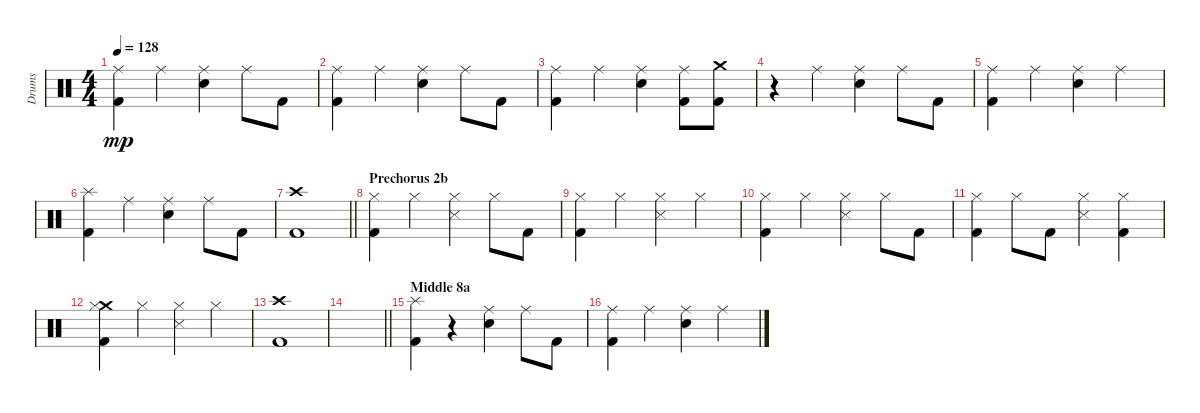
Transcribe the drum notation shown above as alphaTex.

\track ("Drums" "Drums") {instrument percussion}
\staff {score}
\articulation defaults
\ts (4 4)
\tempo 128
\clef neutral
\ks c
("Ride (middle)" "Kick (hit) 2").4{dy mp} "Ride (middle)".4 ("Ride (middle)" "Snare (hit) 2").4 "Ride (middle)".8 "Kick (hit) 2".8 |
("Ride (middle)" "Kick (hit) 2").4 "Ride (middle)".4 ("Ride (middle)" "Snare (hit) 2").4 "Ride (middle)".8 "Kick (hit) 2".8 |
("Ride (middle)" "Kick (hit) 2").4 "Ride (middle)".4 ("Ride (middle)" "Snare (hit) 2").4 ("Ride (middle)" "Kick (hit) 2").8 ("Crash medium (hit)" "Kick (hit) 2").8 |
r.4 "Ride (middle)".4 ("Ride (middle)" "Snare (hit) 2").4 "Ride (middle)".8 "Kick (hit) 2".8 |
("Ride (middle)" "Kick (hit) 2").4 "Ride (middle)".4 ("Ride (middle)" "Snare (hit) 2").4 "Ride (middle)".4 |
("Splash (hit)" "Kick (hit) 2").4 "Ride (middle)".4 ("Ride (middle)" "Snare (hit) 2").4 "Ride (middle)".8 "Kick (hit) 2".8 |
\barLineRight lightlight
("Crash high (hit)" "Kick (hit) 2").1 |
\section ("" "Prechorus 2b")
("Hi-Hat (closed)" "Kick (hit) 2").4 "Hi-Hat (closed)".4 ("Hi-Hat (closed)" "Snare (side stick) 3").4 "Hi-Hat (closed)".8 "Kick (hit) 2".8 |
("Hi-Hat (closed)" "Kick (hit) 2").4 "Hi-Hat (closed)".4 ("Hi-Hat (closed)" "Snare (side stick) 3").4 "Hi-Hat (closed)".4 |
("Hi-Hat (closed)" "Kick (hit) 2").4 "Hi-Hat (closed)".4 ("Hi-Hat (closed)" "Snare (side stick) 3").4 "Hi-Hat (closed)".8 "Kick (hit) 2".8 |
("Hi-Hat (closed)" "Kick (hit) 2").4 "Hi-Hat (closed)".8 "Kick (hit) 2".8 ("Hi-Hat (closed)" "Snare (side stick) 3").4 ("Hi-Hat (closed)" "Kick (hit) 2").4 |
("Crash medium (hit)" "Hi-Hat (closed)" "Kick (hit) 2").4 "Hi-Hat (closed)".4 ("Hi-Hat (closed)" "Snare (side stick) 3").4 "Hi-Hat (closed)".4 |
("Crash high (hit)" "Kick (hit) 2").1 |
\barLineRight lightlight
|
\section ("" "Middle 8a")
("Splash (hit)" "Kick (hit) 2").4 r.4 ("Ride (middle)" "Snare (hit) 2").4 "Ride (middle)".8 "Kick (hit) 2".8 |
("Ride (middle)" "Kick (hit) 2").4 "Ride (middle)".4 ("Ride (middle)" "Snare (hit) 2").4 "Ride (middle)".4
